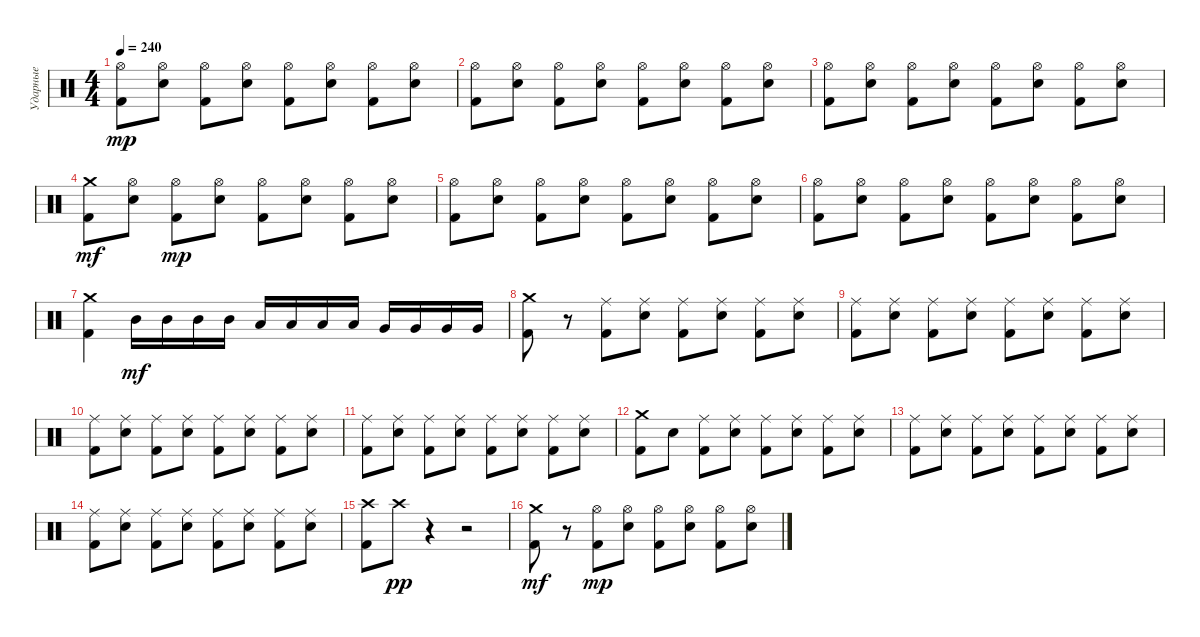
\track ("Ударные" "Ударные") {instrument percussion}
\staff {score}
\articulation defaults
\ts (4 4)
\tempo 240
\clef neutral
\ks c
("Hi-Hat (open)" "Kick (hit) 2").8{dy mp} ("Hi-Hat (open)" "Snare (hit) 2").8 ("Hi-Hat (open)" "Kick (hit) 2").8 ("Hi-Hat (open)" "Snare (hit) 2").8 ("Hi-Hat (open)" "Kick (hit) 2").8 ("Hi-Hat (open)" "Snare (hit) 2").8 ("Hi-Hat (open)" "Kick (hit) 2").8 ("Hi-Hat (open)" "Snare (hit) 2").8 |
("Hi-Hat (open)" "Kick (hit) 2").8 ("Hi-Hat (open)" "Snare (hit) 2").8 ("Hi-Hat (open)" "Kick (hit) 2").8 ("Hi-Hat (open)" "Snare (hit) 2").8 ("Hi-Hat (open)" "Kick (hit) 2").8 ("Hi-Hat (open)" "Snare (hit) 2").8 ("Hi-Hat (open)" "Kick (hit) 2").8 ("Hi-Hat (open)" "Snare (hit) 2").8 |
("Hi-Hat (open)" "Kick (hit) 2").8 ("Hi-Hat (open)" "Snare (hit) 2").8 ("Hi-Hat (open)" "Kick (hit) 2").8 ("Hi-Hat (open)" "Snare (hit) 2").8 ("Hi-Hat (open)" "Kick (hit) 2").8 ("Hi-Hat (open)" "Snare (hit) 2").8 ("Hi-Hat (open)" "Kick (hit) 2").8 ("Hi-Hat (open)" "Snare (hit) 2").8 |
("Crash medium (hit)" "Kick (hit) 2").8{dy mf} ("Hi-Hat (open)" "Snare (hit) 2").8 ("Hi-Hat (open)" "Kick (hit) 2").8{dy mp} ("Hi-Hat (open)" "Snare (hit) 2").8 ("Hi-Hat (open)" "Kick (hit) 2").8 ("Hi-Hat (open)" "Snare (hit) 2").8 ("Hi-Hat (open)" "Kick (hit) 2").8 ("Hi-Hat (open)" "Snare (hit) 2").8 |
("Hi-Hat (open)" "Kick (hit) 2").8 ("Hi-Hat (open)" "Snare (hit) 2").8 ("Hi-Hat (open)" "Kick (hit) 2").8 ("Hi-Hat (open)" "Snare (hit) 2").8 ("Hi-Hat (open)" "Kick (hit) 2").8 ("Hi-Hat (open)" "Snare (hit) 2").8 ("Hi-Hat (open)" "Kick (hit) 2").8 ("Hi-Hat (open)" "Snare (hit) 2").8 |
("Hi-Hat (open)" "Kick (hit) 2").8 ("Hi-Hat (open)" "Snare (hit) 2").8 ("Hi-Hat (open)" "Kick (hit) 2").8 ("Hi-Hat (open)" "Snare (hit) 2").8 ("Hi-Hat (open)" "Kick (hit) 2").8 ("Hi-Hat (open)" "Snare (hit) 2").8 ("Hi-Hat (open)" "Kick (hit) 2").8 ("Hi-Hat (open)" "Snare (hit) 2").8 |
("Crash medium (hit)" "Kick (hit) 2").4 "Mid Tom (hit)".16{dy mf} "Mid Tom (hit)".16 "Mid Tom (hit)".16 "Mid Tom (hit)".16 "Low Tom (hit)".16 "Low Tom (hit)".16 "Low Tom (hit)".16 "Low Tom (hit)".16 "Very Low Tom (hit)".16 "Very Low Tom (hit)".16 "Very Low Tom (hit)".16 "Very Low Tom (hit)".16 |
("Crash medium (hit)" "Kick (hit) 2").8 r.8 ("Ride (middle)" "Kick (hit) 2").8 ("Ride (middle)" "Snare (hit) 2").8 ("Ride (middle)" "Kick (hit) 2").8 ("Ride (middle)" "Snare (hit) 2").8 ("Ride (middle)" "Kick (hit) 2").8 ("Ride (middle)" "Snare (hit) 2").8 |
("Ride (middle)" "Kick (hit) 2").8 ("Ride (middle)" "Snare (hit) 2").8 ("Ride (middle)" "Kick (hit) 2").8 ("Ride (middle)" "Snare (hit) 2").8 ("Ride (middle)" "Kick (hit) 2").8 ("Ride (middle)" "Snare (hit) 2").8 ("Ride (middle)" "Kick (hit) 2").8 ("Ride (middle)" "Snare (hit) 2").8 |
("Ride (middle)" "Kick (hit) 2").8 ("Ride (middle)" "Snare (hit) 2").8 ("Ride (middle)" "Kick (hit) 2").8 ("Ride (middle)" "Snare (hit) 2").8 ("Ride (middle)" "Kick (hit) 2").8 ("Ride (middle)" "Snare (hit) 2").8 ("Ride (middle)" "Kick (hit) 2").8 ("Ride (middle)" "Snare (hit) 2").8 |
("Ride (middle)" "Kick (hit) 2").8 ("Ride (middle)" "Snare (hit) 2").8 ("Ride (middle)" "Kick (hit) 2").8 ("Ride (middle)" "Snare (hit) 2").8 ("Ride (middle)" "Kick (hit) 2").8 ("Ride (middle)" "Snare (hit) 2").8 ("Ride (middle)" "Kick (hit) 2").8 ("Ride (middle)" "Snare (hit) 2").8 |
("Crash medium (hit)" "Kick (hit) 2").8 "Snare (hit) 2".8 ("Ride (middle)" "Kick (hit) 2").8 ("Ride (middle)" "Snare (hit) 2").8 ("Ride (middle)" "Kick (hit) 2").8 ("Ride (middle)" "Snare (hit) 2").8 ("Ride (middle)" "Kick (hit) 2").8 ("Ride (middle)" "Snare (hit) 2").8 |
("Ride (middle)" "Kick (hit) 2").8 ("Ride (middle)" "Snare (hit) 2").8 ("Ride (middle)" "Kick (hit) 2").8 ("Ride (middle)" "Snare (hit) 2").8 ("Ride (middle)" "Kick (hit) 2").8 ("Ride (middle)" "Snare (hit) 2").8 ("Ride (middle)" "Kick (hit) 2").8 ("Ride (middle)" "Snare (hit) 2").8 |
("Ride (middle)" "Kick (hit) 2").8 ("Ride (middle)" "Snare (hit) 2").8 ("Ride (middle)" "Kick (hit) 2").8 ("Ride (middle)" "Snare (hit) 2").8 ("Ride (middle)" "Kick (hit) 2").8 ("Ride (middle)" "Snare (hit) 2").8 ("Ride (middle)" "Kick (hit) 2").8 ("Ride (middle)" "Snare (hit) 2").8 |
("Crash high (hit)" "Kick (hit) 2").8 "Crash high (hit)".8{dy pp} r.4 r.2 |
("Crash medium (hit)" "Kick (hit) 2").8{dy mf} r.8 ("Hi-Hat (open)" "Kick (hit) 2").8{dy mp} ("Hi-Hat (open)" "Snare (hit) 2").8 ("Hi-Hat (open)" "Kick (hit) 2").8 ("Hi-Hat (open)" "Snare (hit) 2").8 ("Hi-Hat (open)" "Kick (hit) 2").8 ("Hi-Hat (open)" "Snare (hit) 2").8
